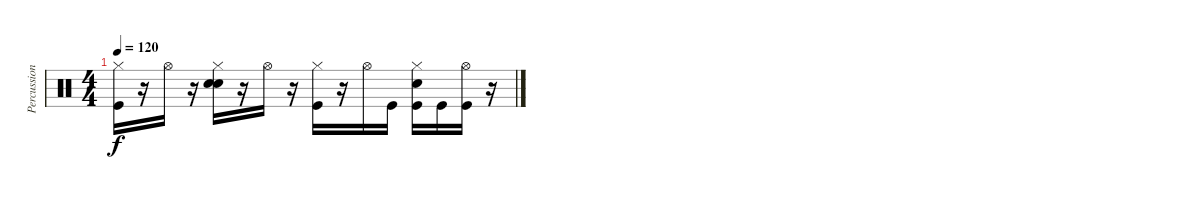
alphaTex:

\track ("Percussion" "Percussion") {instrument percussion}
\staff {score}
\articulation defaults
\ts (4 4)
\tempo 120
\clef neutral
\ks c
("Hi-Hat (closed)" "Kick (hit)").16{dy f} r.16 "Hi-Hat (open)".16 r.16 ("Hi-Hat (closed)" "Hand Clap (hit)" "Snare (hit) 2").16 r.16 "Hi-Hat (open)".16 r.16 ("Hi-Hat (closed)" "Kick (hit)").16 r.16 "Hi-Hat (open)".16 "Kick (hit)".16 ("Hi-Hat (closed)" "Hand Clap (hit)" "Kick (hit)").16 "Kick (hit)".16 ("Hi-Hat (open)" "Kick (hit)").16 r.16
